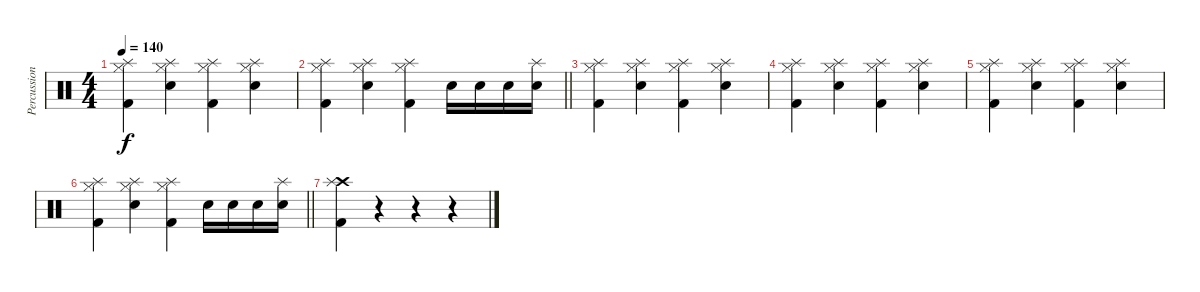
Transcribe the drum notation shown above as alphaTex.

\track ("Percussion" "Percussion") {instrument percussion}
\staff {score}
\articulation defaults
\ts (4 4)
\tempo 140
\clef neutral
\ks c
("Kick (hit) 2" "Hi-Hat (closed)" "Splash (hit)").4{dy f} ("Hi-Hat (closed)" "Electric Snare (hit)" "Splash (hit)").4 ("Kick (hit) 2" "Hi-Hat (closed)" "Splash (hit)").4 ("Hi-Hat (closed)" "Electric Snare (hit)" "Splash (hit)").4 |
\barLineRight lightlight
("Kick (hit) 2" "Hi-Hat (closed)" "Splash (hit)").4 ("Hi-Hat (closed)" "Electric Snare (hit)" "Splash (hit)").4 ("Kick (hit) 2" "Hi-Hat (closed)" "Splash (hit)").4 "Electric Snare (hit)".16 "Electric Snare (hit)".16 "Electric Snare (hit)".16 ("Electric Snare (hit)" "Splash (hit)").16 |
("Kick (hit) 2" "Hi-Hat (closed)" "Splash (hit)").4 ("Hi-Hat (closed)" "Electric Snare (hit)" "Splash (hit)").4 ("Kick (hit) 2" "Hi-Hat (closed)" "Splash (hit)").4 ("Hi-Hat (closed)" "Electric Snare (hit)" "Splash (hit)").4 |
("Kick (hit) 2" "Hi-Hat (closed)" "Splash (hit)").4 ("Hi-Hat (closed)" "Electric Snare (hit)" "Splash (hit)").4 ("Kick (hit) 2" "Hi-Hat (closed)" "Splash (hit)").4 ("Hi-Hat (closed)" "Electric Snare (hit)" "Splash (hit)").4 |
("Kick (hit) 2" "Hi-Hat (closed)" "Splash (hit)").4 ("Hi-Hat (closed)" "Electric Snare (hit)" "Splash (hit)").4 ("Kick (hit) 2" "Hi-Hat (closed)" "Splash (hit)").4 ("Hi-Hat (closed)" "Electric Snare (hit)" "Splash (hit)").4 |
\barLineRight lightlight
("Kick (hit) 2" "Hi-Hat (closed)" "Splash (hit)").4 ("Hi-Hat (closed)" "Electric Snare (hit)" "Splash (hit)").4 ("Kick (hit) 2" "Hi-Hat (closed)" "Splash (hit)").4 "Electric Snare (hit)".16 "Electric Snare (hit)".16 "Electric Snare (hit)".16 ("Electric Snare (hit)" "Splash (hit)").16 |
("Kick (hit) 2" "Crash high (hit)" "Splash (hit)").4 r.4 r.4 r.4
